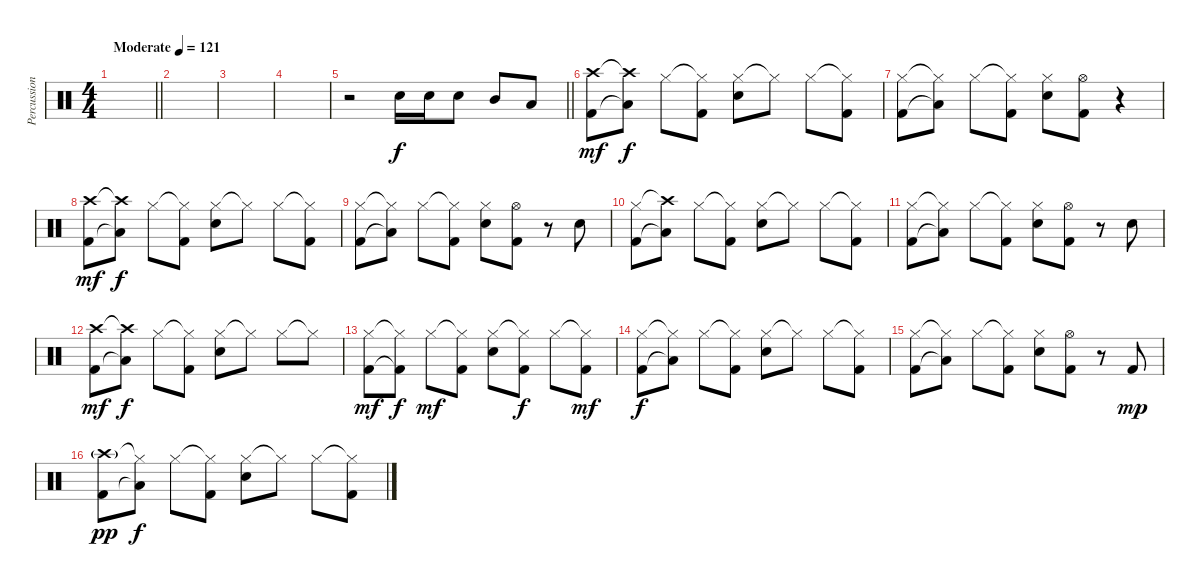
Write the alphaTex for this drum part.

\track ("Percussioni" "Percussion") {instrument percussion}
\staff {score}
\articulation defaults
\ts (4 4)
\tempo (121 "Moderate")
\clef neutral
\barLineRight lightlight
\ks c
|
|
|
|
\barLineRight lightlight
r.2 "Snare (hit) 2".16 "Snare (hit) 2".16 "Snare (hit) 2".8 "Mid Tom (hit)".8 "Low Tom (hit)".8 |
("Crash high (hit)" "Kick (hit) 2").8{dy mf} ("Crash high (hit)"{t} "Low Floor Tom (hit)"{t}).8{dy f} "Hi-Hat (closed)".8 ("Hi-Hat (closed)"{t} "Kick (hit) 2").8 ("Hi-Hat (closed)" "Snare (hit) 2").8 "Hi-Hat (closed)"{t}.8 "Hi-Hat (closed)".8 ("Hi-Hat (closed)"{t} "Kick (hit) 2").8 |
("Hi-Hat (closed)" "Kick (hit) 2").8 ("Hi-Hat (closed)"{t} "Low Floor Tom (hit)"{t}).8 "Hi-Hat (closed)".8 ("Hi-Hat (closed)"{t} "Kick (hit) 2").8 ("Hi-Hat (closed)" "Snare (hit) 2").8 ("Hi-Hat (open)" "Kick (hit) 2").8 r.4 |
("Crash high (hit)" "Kick (hit) 2").8{dy mf} ("Crash high (hit)"{t} "Low Floor Tom (hit)"{t}).8{dy f} "Hi-Hat (closed)".8 ("Hi-Hat (closed)"{t} "Kick (hit) 2").8 ("Hi-Hat (closed)" "Snare (hit) 2").8 "Hi-Hat (closed)"{t}.8 "Hi-Hat (closed)".8 ("Hi-Hat (closed)"{t} "Kick (hit) 2").8 |
("Hi-Hat (closed)" "Kick (hit) 2").8 ("Hi-Hat (closed)"{t} "Low Floor Tom (hit)"{t}).8 "Hi-Hat (closed)".8 ("Hi-Hat (closed)"{t} "Kick (hit) 2").8 ("Hi-Hat (closed)" "Snare (hit) 2").8 ("Hi-Hat (open)" "Kick (hit) 2").8 r.8 "Snare (hit) 2".8 |
("Hi-Hat (closed)" "Kick (hit) 2").8 ("Crash high (hit)"{t} "Low Floor Tom (hit)"{t}).8 "Hi-Hat (closed)".8 ("Hi-Hat (closed)"{t} "Kick (hit) 2").8 ("Hi-Hat (closed)" "Snare (hit) 2").8 "Hi-Hat (closed)"{t}.8 "Hi-Hat (closed)".8 ("Hi-Hat (closed)"{t} "Kick (hit) 2").8 |
("Hi-Hat (closed)" "Kick (hit) 2").8 ("Hi-Hat (closed)"{t} "Low Floor Tom (hit)"{t}).8 "Hi-Hat (closed)".8 ("Hi-Hat (closed)"{t} "Kick (hit) 2").8 ("Hi-Hat (closed)" "Snare (hit) 2").8 ("Hi-Hat (open)" "Kick (hit) 2").8 r.8 "Snare (hit) 2".8 |
("Crash high (hit)" "Kick (hit) 2").8{dy mf} ("Crash high (hit)"{t} "Low Floor Tom (hit)"{t}).8{dy f} "Hi-Hat (closed)".8 ("Hi-Hat (closed)"{t} "Kick (hit) 2").8 ("Hi-Hat (closed)" "Snare (hit) 2").8 "Hi-Hat (closed)"{t}.8 "Hi-Hat (closed)".8 "Hi-Hat (closed)"{t}.8 |
("Hi-Hat (closed)" "Kick (hit) 2").8{dy mf} ("Hi-Hat (closed)"{t} "Kick (hit) 2"{t}).8{dy f} "Hi-Hat (closed)".8{dy mf} ("Hi-Hat (closed)"{t} "Kick (hit) 2").8 ("Hi-Hat (closed)" "Snare (hit) 2").8 ("Hi-Hat (closed)"{t} "Kick (hit) 2").8{dy f} "Hi-Hat (closed)".8 ("Hi-Hat (closed)"{t} "Kick (hit) 2").8{dy mf} |
("Hi-Hat (closed)" "Kick (hit) 2").8{dy f} ("Hi-Hat (closed)"{t} "Low Floor Tom (hit)"{t}).8 "Hi-Hat (closed)".8 ("Hi-Hat (closed)"{t} "Kick (hit) 2").8 ("Hi-Hat (closed)" "Snare (hit) 2").8 "Hi-Hat (closed)"{t}.8 "Hi-Hat (closed)".8 ("Hi-Hat (closed)"{t} "Kick (hit) 2").8 |
("Hi-Hat (closed)" "Kick (hit) 2").8 ("Hi-Hat (closed)"{t} "Low Floor Tom (hit)"{t}).8 "Hi-Hat (closed)".8 ("Hi-Hat (closed)"{t} "Kick (hit) 2").8 ("Hi-Hat (closed)" "Snare (hit) 2").8 ("Hi-Hat (open)" "Kick (hit) 2").8 r.8 "Kick (hit) 2".8{dy mp} |
("Crash high (hit)"{g} "Kick (hit) 2").8{dy pp} ("Hi-Hat (closed)"{t} "Low Floor Tom (hit)"{t}).8{dy f} "Hi-Hat (closed)".8 ("Hi-Hat (closed)"{t} "Kick (hit) 2").8 ("Hi-Hat (closed)" "Snare (hit) 2").8 "Hi-Hat (closed)"{t}.8 "Hi-Hat (closed)".8 ("Hi-Hat (closed)"{t} "Kick (hit) 2").8
